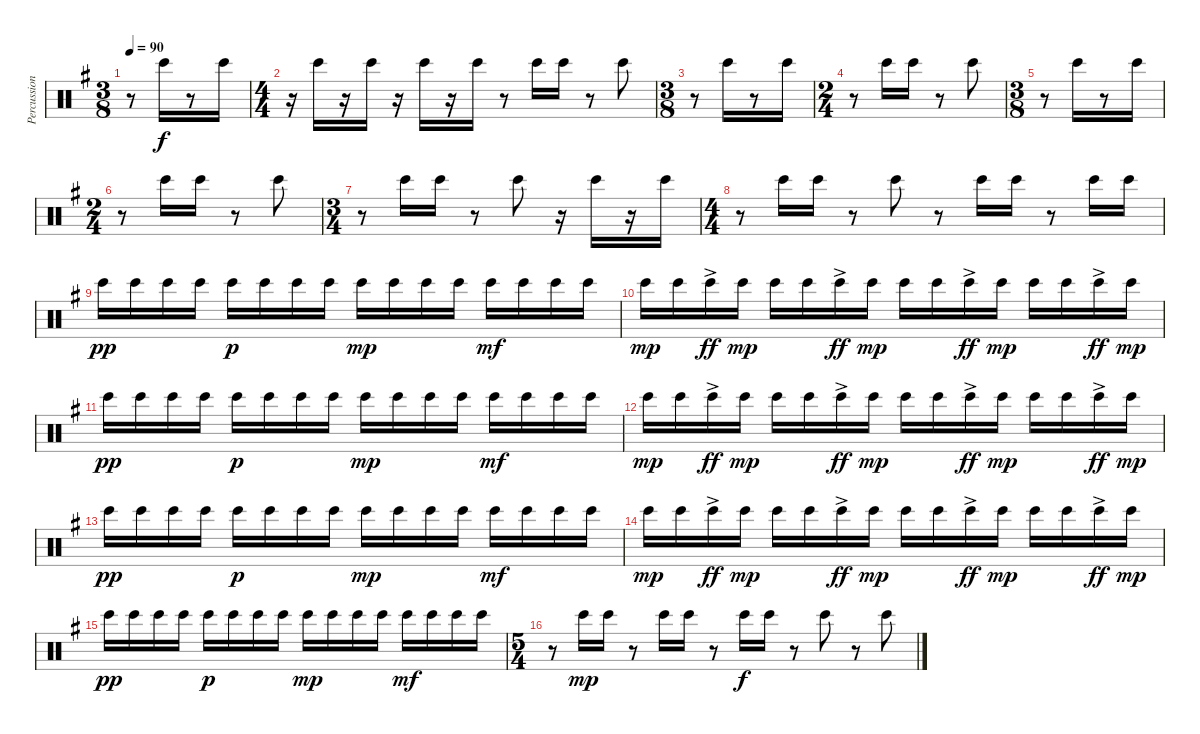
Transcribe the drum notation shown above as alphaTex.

\track ("Percussion" "Percussion") {instrument percussion}
\staff {score}
\articulation defaults
\ts (3 8)
\tempo 90
\clef neutral
\ks g
r.8{dy f} "Bongo High (hit)".16 r.8 "Bongo High (hit)".16 |
\ts (4 4)
r.16 "Bongo High (hit)".16 r.16 "Bongo High (hit)".16 r.16 "Bongo High (hit)".16 r.16 "Bongo High (hit)".16 r.8 "Bongo High (hit)".16 "Bongo High (hit)".16 r.8 "Bongo High (hit)".8 |
\ts (3 8)
r.8 "Bongo High (hit)".16 r.8 "Bongo High (hit)".16 |
\ts (2 4)
r.8 "Bongo High (hit)".16 "Bongo High (hit)".16 r.8 "Bongo High (hit)".8 |
\ts (3 8)
r.8 "Bongo High (hit)".16 r.8 "Bongo High (hit)".16 |
\ts (2 4)
r.8 "Bongo High (hit)".16 "Bongo High (hit)".16 r.8 "Bongo High (hit)".8 |
\ts (3 4)
r.8 "Bongo High (hit)".16 "Bongo High (hit)".16 r.8 "Bongo High (hit)".8 r.16 "Bongo High (hit)".16 r.16 "Bongo High (hit)".16 |
\ts (4 4)
r.8 "Bongo High (hit)".16 "Bongo High (hit)".16 r.8 "Bongo High (hit)".8 r.8 "Bongo High (hit)".16 "Bongo High (hit)".16 r.8 "Bongo High (hit)".16 "Bongo High (hit)".16 |
"Bongo High (hit)".16{dy pp} "Bongo High (hit)".16 "Bongo High (hit)".16 "Bongo High (hit)".16 "Bongo High (hit)".16{dy p} "Bongo High (hit)".16 "Bongo High (hit)".16 "Bongo High (hit)".16 "Bongo High (hit)".16{dy mp} "Bongo High (hit)".16 "Bongo High (hit)".16 "Bongo High (hit)".16 "Bongo High (hit)".16{dy mf} "Bongo High (hit)".16 "Bongo High (hit)".16 "Bongo High (hit)".16 |
"Bongo High (hit)".16{dy mp} "Bongo High (hit)".16 "Bongo High (hit)"{ac}.16{dy ff} "Bongo High (hit)".16{dy mp} "Bongo High (hit)".16 "Bongo High (hit)".16 "Bongo High (hit)"{ac}.16{dy ff} "Bongo High (hit)".16{dy mp} "Bongo High (hit)".16 "Bongo High (hit)".16 "Bongo High (hit)"{ac}.16{dy ff} "Bongo High (hit)".16{dy mp} "Bongo High (hit)".16 "Bongo High (hit)".16 "Bongo High (hit)"{ac}.16{dy ff} "Bongo High (hit)".16{dy mp} |
"Bongo High (hit)".16{dy pp} "Bongo High (hit)".16 "Bongo High (hit)".16 "Bongo High (hit)".16 "Bongo High (hit)".16{dy p} "Bongo High (hit)".16 "Bongo High (hit)".16 "Bongo High (hit)".16 "Bongo High (hit)".16{dy mp} "Bongo High (hit)".16 "Bongo High (hit)".16 "Bongo High (hit)".16 "Bongo High (hit)".16{dy mf} "Bongo High (hit)".16 "Bongo High (hit)".16 "Bongo High (hit)".16 |
"Bongo High (hit)".16{dy mp} "Bongo High (hit)".16 "Bongo High (hit)"{ac}.16{dy ff} "Bongo High (hit)".16{dy mp} "Bongo High (hit)".16 "Bongo High (hit)".16 "Bongo High (hit)"{ac}.16{dy ff} "Bongo High (hit)".16{dy mp} "Bongo High (hit)".16 "Bongo High (hit)".16 "Bongo High (hit)"{ac}.16{dy ff} "Bongo High (hit)".16{dy mp} "Bongo High (hit)".16 "Bongo High (hit)".16 "Bongo High (hit)"{ac}.16{dy ff} "Bongo High (hit)".16{dy mp} |
"Bongo High (hit)".16{dy pp} "Bongo High (hit)".16 "Bongo High (hit)".16 "Bongo High (hit)".16 "Bongo High (hit)".16{dy p} "Bongo High (hit)".16 "Bongo High (hit)".16 "Bongo High (hit)".16 "Bongo High (hit)".16{dy mp} "Bongo High (hit)".16 "Bongo High (hit)".16 "Bongo High (hit)".16 "Bongo High (hit)".16{dy mf} "Bongo High (hit)".16 "Bongo High (hit)".16 "Bongo High (hit)".16 |
"Bongo High (hit)".16{dy mp} "Bongo High (hit)".16 "Bongo High (hit)"{ac}.16{dy ff} "Bongo High (hit)".16{dy mp} "Bongo High (hit)".16 "Bongo High (hit)".16 "Bongo High (hit)"{ac}.16{dy ff} "Bongo High (hit)".16{dy mp} "Bongo High (hit)".16 "Bongo High (hit)".16 "Bongo High (hit)"{ac}.16{dy ff} "Bongo High (hit)".16{dy mp} "Bongo High (hit)".16 "Bongo High (hit)".16 "Bongo High (hit)"{ac}.16{dy ff} "Bongo High (hit)".16{dy mp} |
"Bongo High (hit)".16{dy pp} "Bongo High (hit)".16 "Bongo High (hit)".16 "Bongo High (hit)".16 "Bongo High (hit)".16{dy p} "Bongo High (hit)".16 "Bongo High (hit)".16 "Bongo High (hit)".16 "Bongo High (hit)".16{dy mp} "Bongo High (hit)".16 "Bongo High (hit)".16 "Bongo High (hit)".16 "Bongo High (hit)".16{dy mf} "Bongo High (hit)".16 "Bongo High (hit)".16 "Bongo High (hit)".16 |
\ts (5 4)
r.8 "Bongo High (hit)".16{dy mp} "Bongo High (hit)".16 r.8 "Bongo High (hit)".16 "Bongo High (hit)".16 r.8 "Bongo High (hit)".16{dy f} "Bongo High (hit)".16 r.8 "Bongo High (hit)".8 r.8 "Bongo High (hit)".8
